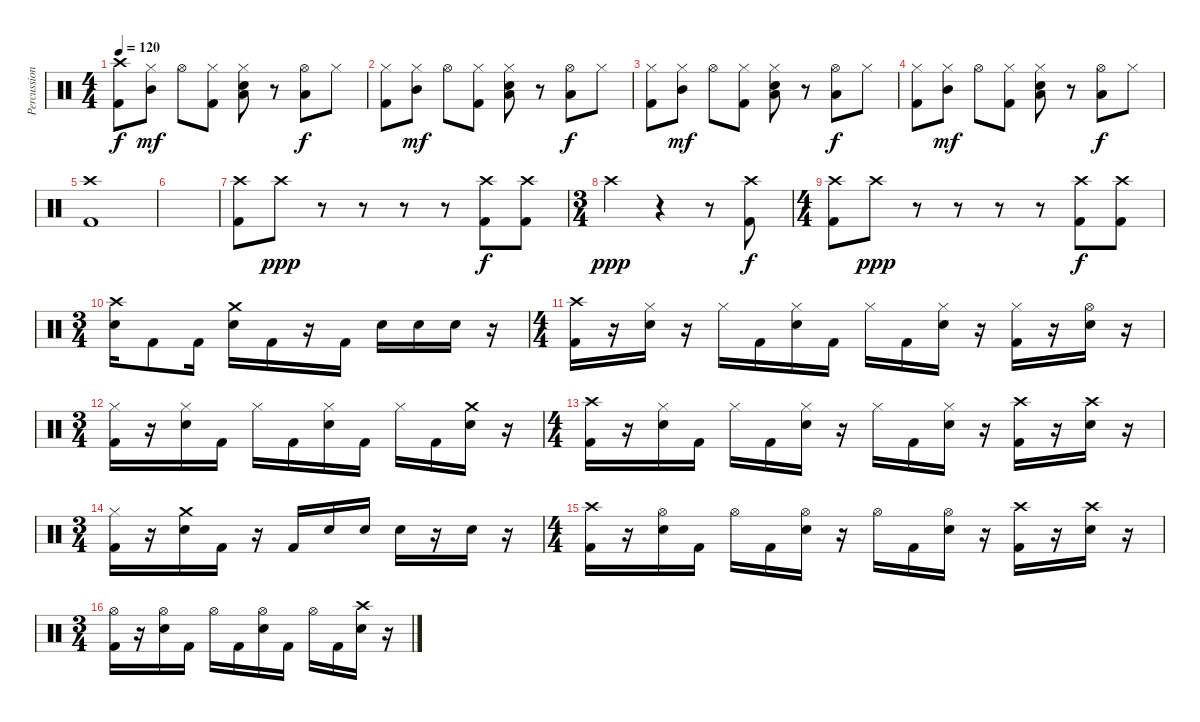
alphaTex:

\track ("Percussion" "Percussion") {instrument percussion}
\staff {score}
\articulation defaults
\ts (4 4)
\tempo 120
\clef neutral
\ks c
("Crash high (hit)" "Kick (hit) 2").8{dy f} ("Hi-Hat (closed)" "Mid Tom (hit)").8{dy mf} "Hi-Hat (open)".8 ("Hi-Hat (closed)" "Kick (hit) 2").8 ("Hi-Hat (closed)" "Low Tom (hit)" "Snare (hit) 2").8 r.8 ("Hi-Hat (open)" "Low Floor Tom (hit)").8{dy f} "Hi-Hat (closed)".8 |
("Hi-Hat (closed)" "Kick (hit) 2").8 ("Hi-Hat (closed)" "Mid Tom (hit)").8{dy mf} "Hi-Hat (open)".8 ("Hi-Hat (closed)" "Kick (hit) 2").8 ("Hi-Hat (closed)" "Low Tom (hit)" "Snare (hit) 2").8 r.8 ("Hi-Hat (open)" "Low Floor Tom (hit)").8{dy f} "Hi-Hat (closed)".8 |
("Hi-Hat (closed)" "Kick (hit) 2").8 ("Hi-Hat (closed)" "Mid Tom (hit)").8{dy mf} "Hi-Hat (open)".8 ("Hi-Hat (closed)" "Kick (hit) 2").8 ("Hi-Hat (closed)" "Low Tom (hit)" "Snare (hit) 2").8 r.8 ("Hi-Hat (open)" "Low Floor Tom (hit)").8{dy f} "Hi-Hat (closed)".8 |
("Hi-Hat (closed)" "Kick (hit) 2").8 ("Hi-Hat (closed)" "Mid Tom (hit)").8{dy mf} "Hi-Hat (open)".8 ("Hi-Hat (closed)" "Kick (hit) 2").8 ("Hi-Hat (closed)" "Low Tom (hit)" "Snare (hit) 2").8 r.8 ("Hi-Hat (open)" "Low Floor Tom (hit)").8{dy f} "Hi-Hat (closed)".8 |
("Crash high (hit)" "Kick (hit) 2").1 |
|
("Crash high (hit)" "Kick (hit) 2").8 "Crash high (hit)".8{dy ppp} r.8 r.8 r.8 r.8 ("Crash high (hit)" "Kick (hit) 2").8{dy f} ("Crash high (hit)" "Kick (hit) 2").8 |
\ts (3 4)
"Crash high (hit)".4{dy ppp} r.4 r.8 ("Crash high (hit)" "Kick (hit) 2").8{dy f} |
\ts (4 4)
("Crash high (hit)" "Kick (hit) 2").8 "Crash high (hit)".8{dy ppp} r.8 r.8 r.8 r.8 ("Crash high (hit)" "Kick (hit) 2").8{dy f} ("Crash high (hit)" "Kick (hit) 2").8 |
\ts (3 4)
("Crash high (hit)" "Snare (hit) 2").16 "Kick (hit) 2".8 "Kick (hit) 2".16 ("Crash medium (hit)" "Snare (hit) 2").16 "Kick (hit) 2".16 r.16 "Kick (hit) 2".16 "Snare (hit) 2".16 "Snare (hit) 2".16 "Snare (hit) 2".16 r.16 |
\ts (4 4)
("Crash high (hit)" "Kick (hit) 2").16 r.16 ("Hi-Hat (closed)" "Snare (hit) 2").16 r.16 "Hi-Hat (closed)".16 "Kick (hit) 2".16 ("Hi-Hat (closed)" "Snare (hit) 2").16 "Kick (hit) 2".16 "Hi-Hat (closed)".16 "Kick (hit) 2".16 ("Hi-Hat (closed)" "Snare (hit) 2").16 r.16 ("Hi-Hat (closed)" "Kick (hit) 2").16 r.16 ("Hi-Hat (open)" "Snare (hit) 2").16 r.16 |
\ts (3 4)
("Hi-Hat (closed)" "Kick (hit) 2").16 r.16 ("Hi-Hat (closed)" "Snare (hit) 2").16 "Kick (hit) 2".16 "Hi-Hat (closed)".16 "Kick (hit) 2".16 ("Hi-Hat (closed)" "Snare (hit) 2").16 "Kick (hit) 2".16 "Hi-Hat (closed)".16 "Kick (hit) 2".16 ("Crash medium (hit)" "Snare (hit) 2").16 r.16 |
\ts (4 4)
("Crash high (hit)" "Kick (hit) 2").16 r.16 ("Hi-Hat (closed)" "Snare (hit) 2").16 "Kick (hit) 2".16 "Hi-Hat (closed)".16 "Kick (hit) 2".16 ("Hi-Hat (closed)" "Snare (hit) 2").16 r.16 "Hi-Hat (closed)".16 "Kick (hit) 2".16 ("Hi-Hat (closed)" "Snare (hit) 2").16 r.16 ("Crash high (hit)" "Kick (hit) 2").16 r.16 ("Crash high (hit)" "Snare (hit) 2").16 r.16 |
\ts (3 4)
("Hi-Hat (closed)" "Kick (hit) 2").16 r.16 ("Crash medium (hit)" "Snare (hit) 2").16 "Kick (hit) 2".16 r.16 "Kick (hit) 2".16 "Snare (hit) 2".16 "Snare (hit) 2".16 "Snare (hit) 2".16 r.16 "Snare (hit) 2".16 r.16 |
\ts (4 4)
("Crash high (hit)" "Kick (hit) 2").16 r.16 ("Hi-Hat (open)" "Snare (hit) 2").16 "Kick (hit) 2".16 "Hi-Hat (open)".16 "Kick (hit) 2".16 ("Hi-Hat (open)" "Snare (hit) 2").16 r.16 "Hi-Hat (open)".16 "Kick (hit) 2".16 ("Hi-Hat (open)" "Snare (hit) 2").16 r.16 ("Crash high (hit)" "Kick (hit) 2").16 r.16 ("Crash high (hit)" "Snare (hit) 2").16 r.16 |
\ts (3 4)
("Hi-Hat (open)" "Kick (hit) 2").16 r.16 ("Hi-Hat (open)" "Snare (hit) 2").16 "Kick (hit) 2".16 "Hi-Hat (open)".16 "Kick (hit) 2".16 ("Hi-Hat (open)" "Snare (hit) 2").16 "Kick (hit) 2".16 "Hi-Hat (open)".16 "Kick (hit) 2".16 ("Crash high (hit)" "Snare (hit) 2").16 r.16
